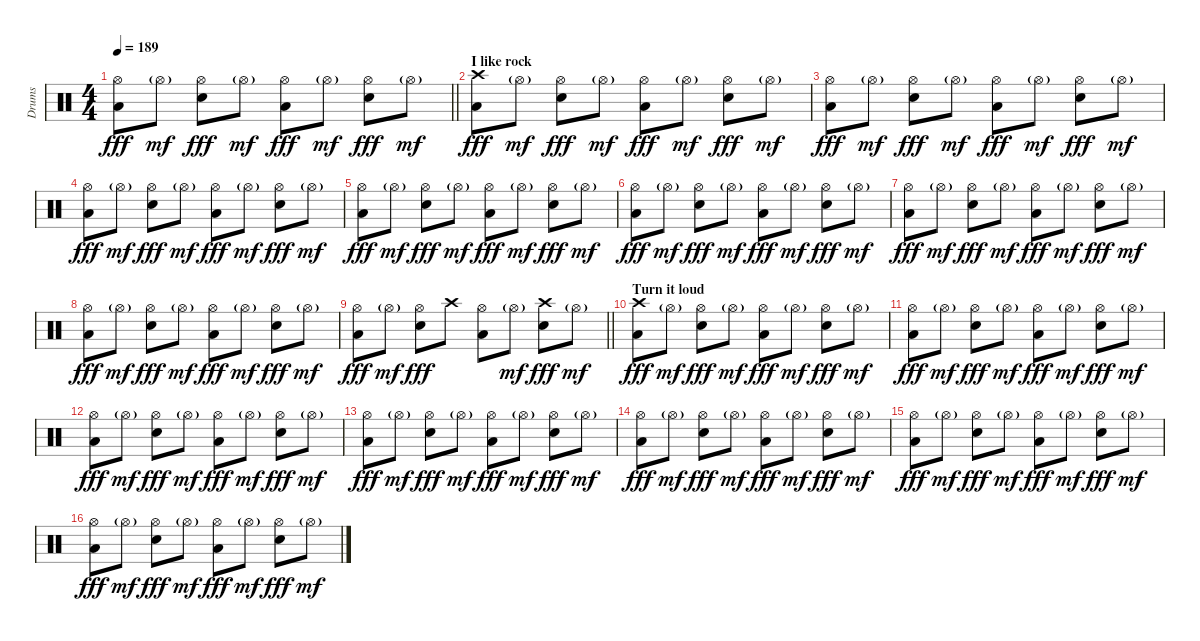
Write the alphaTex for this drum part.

\track ("Drums" "Drums") {instrument percussion}
\staff {score}
\articulation defaults
\ts (4 4)
\tempo 189
\clef neutral
\barLineRight lightlight
\ks c
("Hi-Hat (open)" "Low Floor Tom (hit)").8{dy fff} "Hi-Hat (open)"{g}.8{dy mf} ("Hi-Hat (open)" "Snare (hit) 2").8{dy fff} "Hi-Hat (open)"{g}.8{dy mf} ("Hi-Hat (open)" "Low Floor Tom (hit)").8{dy fff} "Hi-Hat (open)"{g}.8{dy mf} ("Hi-Hat (open)" "Snare (hit) 2").8{dy fff} "Hi-Hat (open)"{g}.8{dy mf} |
\section ("" "I like rock")
("Crash high (hit)" "Low Floor Tom (hit)").8{dy fff} "Hi-Hat (open)"{g}.8{dy mf} ("Hi-Hat (open)" "Snare (hit) 2").8{dy fff} "Hi-Hat (open)"{g}.8{dy mf} ("Hi-Hat (open)" "Low Floor Tom (hit)").8{dy fff} "Hi-Hat (open)"{g}.8{dy mf} ("Hi-Hat (open)" "Snare (hit) 2").8{dy fff} "Hi-Hat (open)"{g}.8{dy mf} |
("Hi-Hat (open)" "Low Floor Tom (hit)").8{dy fff} "Hi-Hat (open)"{g}.8{dy mf} ("Hi-Hat (open)" "Snare (hit) 2").8{dy fff} "Hi-Hat (open)"{g}.8{dy mf} ("Hi-Hat (open)" "Low Floor Tom (hit)").8{dy fff} "Hi-Hat (open)"{g}.8{dy mf} ("Hi-Hat (open)" "Snare (hit) 2").8{dy fff} "Hi-Hat (open)"{g}.8{dy mf} |
("Hi-Hat (open)" "Low Floor Tom (hit)").8{dy fff} "Hi-Hat (open)"{g}.8{dy mf} ("Hi-Hat (open)" "Snare (hit) 2").8{dy fff} "Hi-Hat (open)"{g}.8{dy mf} ("Hi-Hat (open)" "Low Floor Tom (hit)").8{dy fff} "Hi-Hat (open)"{g}.8{dy mf} ("Hi-Hat (open)" "Snare (hit) 2").8{dy fff} "Hi-Hat (open)"{g}.8{dy mf} |
("Hi-Hat (open)" "Low Floor Tom (hit)").8{dy fff} "Hi-Hat (open)"{g}.8{dy mf} ("Hi-Hat (open)" "Snare (hit) 2").8{dy fff} "Hi-Hat (open)"{g}.8{dy mf} ("Hi-Hat (open)" "Low Floor Tom (hit)").8{dy fff} "Hi-Hat (open)"{g}.8{dy mf} ("Hi-Hat (open)" "Snare (hit) 2").8{dy fff} "Hi-Hat (open)"{g}.8{dy mf} |
("Hi-Hat (open)" "Low Floor Tom (hit)").8{dy fff} "Hi-Hat (open)"{g}.8{dy mf} ("Hi-Hat (open)" "Snare (hit) 2").8{dy fff} "Hi-Hat (open)"{g}.8{dy mf} ("Hi-Hat (open)" "Low Floor Tom (hit)").8{dy fff} "Hi-Hat (open)"{g}.8{dy mf} ("Hi-Hat (open)" "Snare (hit) 2").8{dy fff} "Hi-Hat (open)"{g}.8{dy mf} |
("Hi-Hat (open)" "Low Floor Tom (hit)").8{dy fff} "Hi-Hat (open)"{g}.8{dy mf} ("Hi-Hat (open)" "Snare (hit) 2").8{dy fff} "Hi-Hat (open)"{g}.8{dy mf} ("Hi-Hat (open)" "Low Floor Tom (hit)").8{dy fff} "Hi-Hat (open)"{g}.8{dy mf} ("Hi-Hat (open)" "Snare (hit) 2").8{dy fff} "Hi-Hat (open)"{g}.8{dy mf} |
("Hi-Hat (open)" "Low Floor Tom (hit)").8{dy fff} "Hi-Hat (open)"{g}.8{dy mf} ("Hi-Hat (open)" "Snare (hit) 2").8{dy fff} "Hi-Hat (open)"{g}.8{dy mf} ("Hi-Hat (open)" "Low Floor Tom (hit)").8{dy fff} "Hi-Hat (open)"{g}.8{dy mf} ("Hi-Hat (open)" "Snare (hit) 2").8{dy fff} "Hi-Hat (open)"{g}.8{dy mf} |
\barLineRight lightlight
("Hi-Hat (open)" "Low Floor Tom (hit)").8{dy fff} "Hi-Hat (open)"{g}.8{dy mf} ("Hi-Hat (open)" "Snare (hit) 2").8{dy fff} "Crash high (hit)".8 ("Hi-Hat (open)" "Low Floor Tom (hit)").8 "Hi-Hat (open)"{g}.8{dy mf} ("Crash high (hit)" "Snare (hit) 2").8{dy fff} "Hi-Hat (open)"{g}.8{dy mf} |
\section ("" "Turn it loud")
("Crash high (hit)" "Low Floor Tom (hit)").8{dy fff} "Hi-Hat (open)"{g}.8{dy mf} ("Hi-Hat (open)" "Snare (hit) 2").8{dy fff} "Hi-Hat (open)"{g}.8{dy mf} ("Hi-Hat (open)" "Low Floor Tom (hit)").8{dy fff} "Hi-Hat (open)"{g}.8{dy mf} ("Hi-Hat (open)" "Snare (hit) 2").8{dy fff} "Hi-Hat (open)"{g}.8{dy mf} |
("Hi-Hat (open)" "Low Floor Tom (hit)").8{dy fff} "Hi-Hat (open)"{g}.8{dy mf} ("Hi-Hat (open)" "Snare (hit) 2").8{dy fff} "Hi-Hat (open)"{g}.8{dy mf} ("Hi-Hat (open)" "Low Floor Tom (hit)").8{dy fff} "Hi-Hat (open)"{g}.8{dy mf} ("Hi-Hat (open)" "Snare (hit) 2").8{dy fff} "Hi-Hat (open)"{g}.8{dy mf} |
("Hi-Hat (open)" "Low Floor Tom (hit)").8{dy fff} "Hi-Hat (open)"{g}.8{dy mf} ("Hi-Hat (open)" "Snare (hit) 2").8{dy fff} "Hi-Hat (open)"{g}.8{dy mf} ("Hi-Hat (open)" "Low Floor Tom (hit)").8{dy fff} "Hi-Hat (open)"{g}.8{dy mf} ("Hi-Hat (open)" "Snare (hit) 2").8{dy fff} "Hi-Hat (open)"{g}.8{dy mf} |
("Hi-Hat (open)" "Low Floor Tom (hit)").8{dy fff} "Hi-Hat (open)"{g}.8{dy mf} ("Hi-Hat (open)" "Snare (hit) 2").8{dy fff} "Hi-Hat (open)"{g}.8{dy mf} ("Hi-Hat (open)" "Low Floor Tom (hit)").8{dy fff} "Hi-Hat (open)"{g}.8{dy mf} ("Hi-Hat (open)" "Snare (hit) 2").8{dy fff} "Hi-Hat (open)"{g}.8{dy mf} |
("Hi-Hat (open)" "Low Floor Tom (hit)").8{dy fff} "Hi-Hat (open)"{g}.8{dy mf} ("Hi-Hat (open)" "Snare (hit) 2").8{dy fff} "Hi-Hat (open)"{g}.8{dy mf} ("Hi-Hat (open)" "Low Floor Tom (hit)").8{dy fff} "Hi-Hat (open)"{g}.8{dy mf} ("Hi-Hat (open)" "Snare (hit) 2").8{dy fff} "Hi-Hat (open)"{g}.8{dy mf} |
("Hi-Hat (open)" "Low Floor Tom (hit)").8{dy fff} "Hi-Hat (open)"{g}.8{dy mf} ("Hi-Hat (open)" "Snare (hit) 2").8{dy fff} "Hi-Hat (open)"{g}.8{dy mf} ("Hi-Hat (open)" "Low Floor Tom (hit)").8{dy fff} "Hi-Hat (open)"{g}.8{dy mf} ("Hi-Hat (open)" "Snare (hit) 2").8{dy fff} "Hi-Hat (open)"{g}.8{dy mf} |
("Hi-Hat (open)" "Low Floor Tom (hit)").8{dy fff} "Hi-Hat (open)"{g}.8{dy mf} ("Hi-Hat (open)" "Snare (hit) 2").8{dy fff} "Hi-Hat (open)"{g}.8{dy mf} ("Hi-Hat (open)" "Low Floor Tom (hit)").8{dy fff} "Hi-Hat (open)"{g}.8{dy mf} ("Hi-Hat (open)" "Snare (hit) 2").8{dy fff} "Hi-Hat (open)"{g}.8{dy mf}
